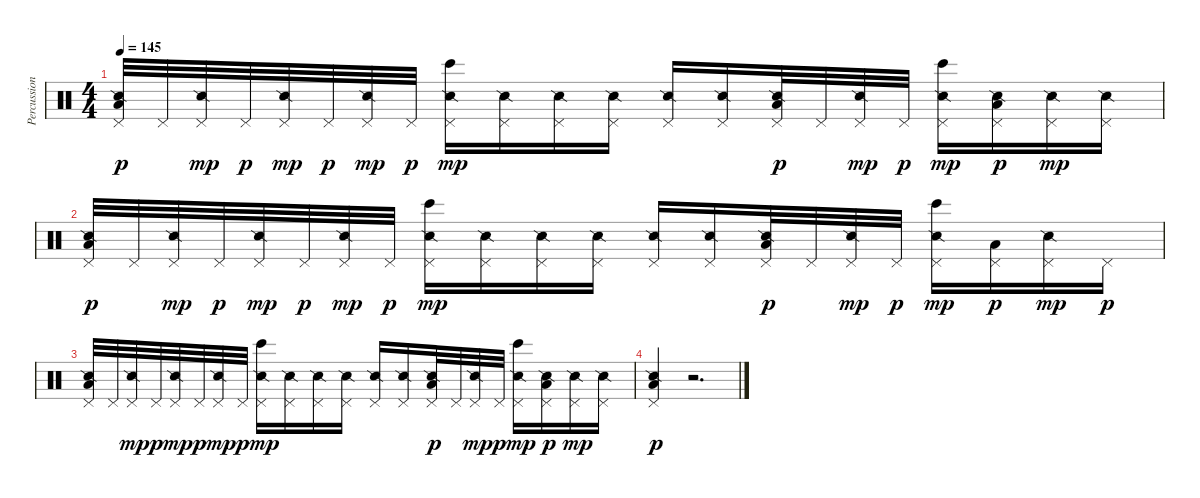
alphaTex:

\track ("Percussion" "Percussion") {instrument percussion}
\staff {score}
\articulation defaults
\ts (4 4)
\tempo 145
\clef neutral
\ks c
("Pedal Hi-Hat (hit)" "Snare (side stick) 2" "Low Tom (hit)").32{dy p} "Pedal Hi-Hat (hit)".32 ("Pedal Hi-Hat (hit)" "Snare (side stick) 2").32{dy mp} "Pedal Hi-Hat (hit)".32{dy p} ("Pedal Hi-Hat (hit)" "Snare (side stick) 2").32{dy mp} "Pedal Hi-Hat (hit)".32{dy p} ("Pedal Hi-Hat (hit)" "Snare (side stick) 2").32{dy mp} "Pedal Hi-Hat (hit)".32{dy p} ("Pedal Hi-Hat (hit)" "Bongo High (hit)" "Snare (side stick) 2").16{dy mp} ("Pedal Hi-Hat (hit)" "Snare (side stick) 2").16 ("Pedal Hi-Hat (hit)" "Snare (side stick) 2").16 ("Pedal Hi-Hat (hit)" "Snare (side stick) 2").16 ("Pedal Hi-Hat (hit)" "Snare (side stick) 2").16 ("Pedal Hi-Hat (hit)" "Snare (side stick) 2").16 ("Pedal Hi-Hat (hit)" "Snare (side stick) 2" "Low Tom (hit)").32{dy p} "Pedal Hi-Hat (hit)".32 ("Pedal Hi-Hat (hit)" "Snare (side stick) 2").32{dy mp} "Pedal Hi-Hat (hit)".32{dy p} ("Pedal Hi-Hat (hit)" "Bongo High (hit)" "Snare (side stick) 2").16{dy mp} ("Pedal Hi-Hat (hit)" "Snare (side stick) 2" "Low Tom (hit)").16{dy p} ("Pedal Hi-Hat (hit)" "Snare (side stick) 2").16{dy mp} ("Pedal Hi-Hat (hit)" "Snare (side stick) 2").16 |
("Pedal Hi-Hat (hit)" "Snare (side stick) 2" "Low Tom (hit)").32{dy p} "Pedal Hi-Hat (hit)".32 ("Pedal Hi-Hat (hit)" "Snare (side stick) 2").32{dy mp} "Pedal Hi-Hat (hit)".32{dy p} ("Pedal Hi-Hat (hit)" "Snare (side stick) 2").32{dy mp} "Pedal Hi-Hat (hit)".32{dy p} ("Pedal Hi-Hat (hit)" "Snare (side stick) 2").32{dy mp} "Pedal Hi-Hat (hit)".32{dy p} ("Pedal Hi-Hat (hit)" "Bongo High (hit)" "Snare (side stick) 2").16{dy mp} ("Pedal Hi-Hat (hit)" "Snare (side stick) 2").16 ("Pedal Hi-Hat (hit)" "Snare (side stick) 2").16 ("Pedal Hi-Hat (hit)" "Snare (side stick) 2").16 ("Pedal Hi-Hat (hit)" "Snare (side stick) 2").16 ("Pedal Hi-Hat (hit)" "Snare (side stick) 2").16 ("Pedal Hi-Hat (hit)" "Snare (side stick) 2" "Low Tom (hit)").32{dy p} "Pedal Hi-Hat (hit)".32 ("Pedal Hi-Hat (hit)" "Snare (side stick) 2").32{dy mp} "Pedal Hi-Hat (hit)".32{dy p} ("Pedal Hi-Hat (hit)" "Bongo High (hit)" "Snare (side stick) 2").16{dy mp} ("Pedal Hi-Hat (hit)" "Low Tom (hit)").16{dy p} ("Pedal Hi-Hat (hit)" "Snare (side stick) 2").16{dy mp} "Pedal Hi-Hat (hit)".16{dy p} |
("Pedal Hi-Hat (hit)" "Snare (side stick) 2" "Low Tom (hit)").32 "Pedal Hi-Hat (hit)".32 ("Pedal Hi-Hat (hit)" "Snare (side stick) 2").32{dy mp} "Pedal Hi-Hat (hit)".32{dy p} ("Pedal Hi-Hat (hit)" "Snare (side stick) 2").32{dy mp} "Pedal Hi-Hat (hit)".32{dy p} ("Pedal Hi-Hat (hit)" "Snare (side stick) 2").32{dy mp} "Pedal Hi-Hat (hit)".32{dy p} ("Pedal Hi-Hat (hit)" "Bongo High (hit)" "Snare (side stick) 2").16{dy mp} ("Pedal Hi-Hat (hit)" "Snare (side stick) 2").16 ("Pedal Hi-Hat (hit)" "Snare (side stick) 2").16 ("Pedal Hi-Hat (hit)" "Snare (side stick) 2").16 ("Pedal Hi-Hat (hit)" "Snare (side stick) 2").16 ("Pedal Hi-Hat (hit)" "Snare (side stick) 2").16 ("Pedal Hi-Hat (hit)" "Snare (side stick) 2" "Low Tom (hit)").32{dy p} "Pedal Hi-Hat (hit)".32 ("Pedal Hi-Hat (hit)" "Snare (side stick) 2").32{dy mp} "Pedal Hi-Hat (hit)".32{dy p} ("Pedal Hi-Hat (hit)" "Bongo High (hit)" "Snare (side stick) 2").16{dy mp} ("Pedal Hi-Hat (hit)" "Snare (side stick) 2" "Low Tom (hit)").16{dy p} ("Pedal Hi-Hat (hit)" "Snare (side stick) 2").16{dy mp} ("Pedal Hi-Hat (hit)" "Snare (side stick) 2").16 |
("Pedal Hi-Hat (hit)" "Snare (side stick) 2" "Low Tom (hit)").4{dy p} r.2{d}
